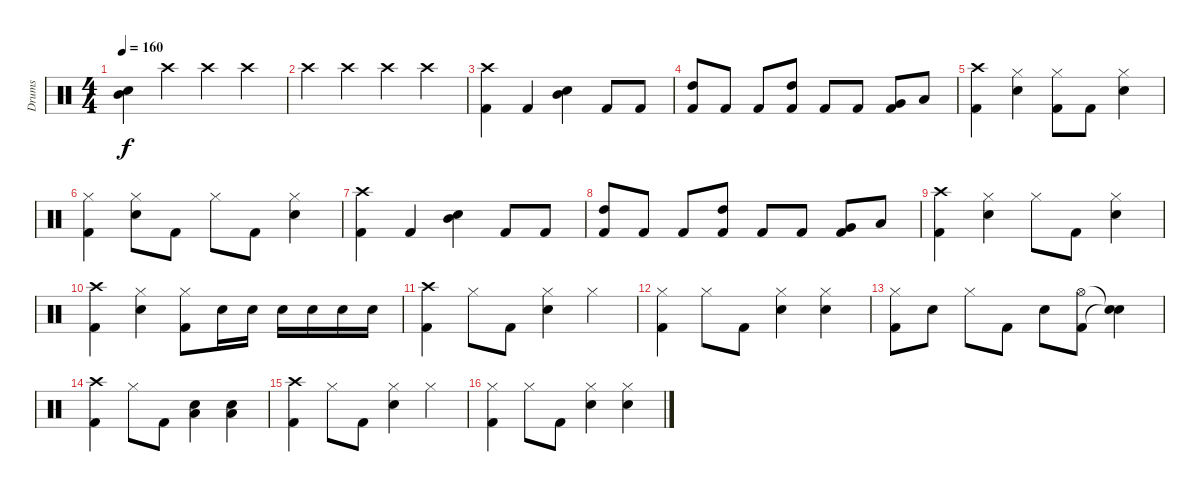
\track ("Drums" "Drums") {instrument percussion}
\staff {score}
\articulation defaults
\ts (4 4)
\tempo 160
\clef neutral
\ks c
("Snare (hit) 2" "Mid Tom (hit)").4{dy f} "Crash high (hit)".4 "Crash high (hit)".4 "Crash high (hit)".4 |
"Crash high (hit)".4 "Crash high (hit)".4 "Crash high (hit)".4 "Crash high (hit)".4 |
("Crash high (hit)" "Kick (hit) 2").4 "Kick (hit) 2".4 ("Snare (hit) 2" "Mid Tom (hit)").4 "Kick (hit) 2".8 "Kick (hit) 2".8 |
("High Tom (hit)" "Kick (hit) 2").8 "Kick (hit) 2".8 "Kick (hit) 2".8 ("High Tom (hit)" "Kick (hit) 2").8 "Kick (hit) 2".8 "Kick (hit) 2".8 ("Very Low Tom (hit)" "Kick (hit) 2").8 "Low Tom (hit)".8 |
("Crash high (hit)" "Kick (hit) 2").4 ("Hi-Hat (closed)" "Snare (hit) 2").4 ("Hi-Hat (closed)" "Kick (hit) 2").8 "Kick (hit) 2".8 ("Hi-Hat (closed)" "Snare (hit) 2").4 |
("Hi-Hat (closed)" "Kick (hit) 2").4 ("Hi-Hat (closed)" "Snare (hit) 2").8 "Kick (hit) 2".8 "Hi-Hat (closed)".8 "Kick (hit) 2".8 ("Hi-Hat (closed)" "Snare (hit) 2").4 |
("Crash high (hit)" "Kick (hit) 2").4 "Kick (hit) 2".4 ("Snare (hit) 2" "Mid Tom (hit)").4 "Kick (hit) 2".8 "Kick (hit) 2".8 |
("High Tom (hit)" "Kick (hit) 2").8 "Kick (hit) 2".8 "Kick (hit) 2".8 ("High Tom (hit)" "Kick (hit) 2").8 "Kick (hit) 2".8 "Kick (hit) 2".8 ("Very Low Tom (hit)" "Kick (hit) 2").8 "Low Tom (hit)".8 |
("Crash high (hit)" "Kick (hit) 2").4 ("Hi-Hat (closed)" "Snare (hit) 2").4 "Hi-Hat (closed)".8 "Kick (hit) 2".8 ("Hi-Hat (closed)" "Snare (hit) 2").4 |
("Crash high (hit)" "Kick (hit) 2").4 ("Hi-Hat (closed)" "Snare (hit) 2").4 ("Hi-Hat (closed)" "Kick (hit) 2").8 "Snare (hit) 2".16 "Snare (hit) 2".16 "Snare (hit) 2".16 "Snare (hit) 2".16 "Snare (hit) 2".16 "Snare (hit) 2".16 |
("Crash high (hit)" "Kick (hit) 2").4 "Hi-Hat (closed)".8 "Kick (hit) 2".8 ("Hi-Hat (closed)" "Snare (hit) 2").4 "Hi-Hat (closed)".4 |
("Hi-Hat (closed)" "Kick (hit) 2").4 "Hi-Hat (closed)".8 "Kick (hit) 2".8 ("Hi-Hat (closed)" "Snare (hit) 2").4 ("Hi-Hat (closed)" "Snare (hit) 2").4 |
("Hi-Hat (closed)" "Kick (hit) 2").8 "Snare (hit) 2".8 "Hi-Hat (closed)".8 "Kick (hit) 2".8 "Snare (hit) 2".8 ("Hi-Hat (open)" "Kick (hit) 2").8 ("Snare (hit)"{t} "Snare (hit)"{t}).4 |
("Crash high (hit)" "Kick (hit) 2").4 "Hi-Hat (closed)".8 "Kick (hit) 2".8 ("Snare (hit) 2" "Low Tom (hit)").4 ("Snare (hit) 2" "Low Tom (hit)").4 |
("Crash high (hit)" "Kick (hit) 2").4 "Hi-Hat (closed)".8 "Kick (hit) 2".8 ("Hi-Hat (closed)" "Snare (hit) 2").4 "Hi-Hat (closed)".4 |
("Hi-Hat (closed)" "Kick (hit) 2").4 "Hi-Hat (closed)".8 "Kick (hit) 2".8 ("Hi-Hat (closed)" "Snare (hit) 2").4 ("Hi-Hat (closed)" "Snare (hit) 2").4
